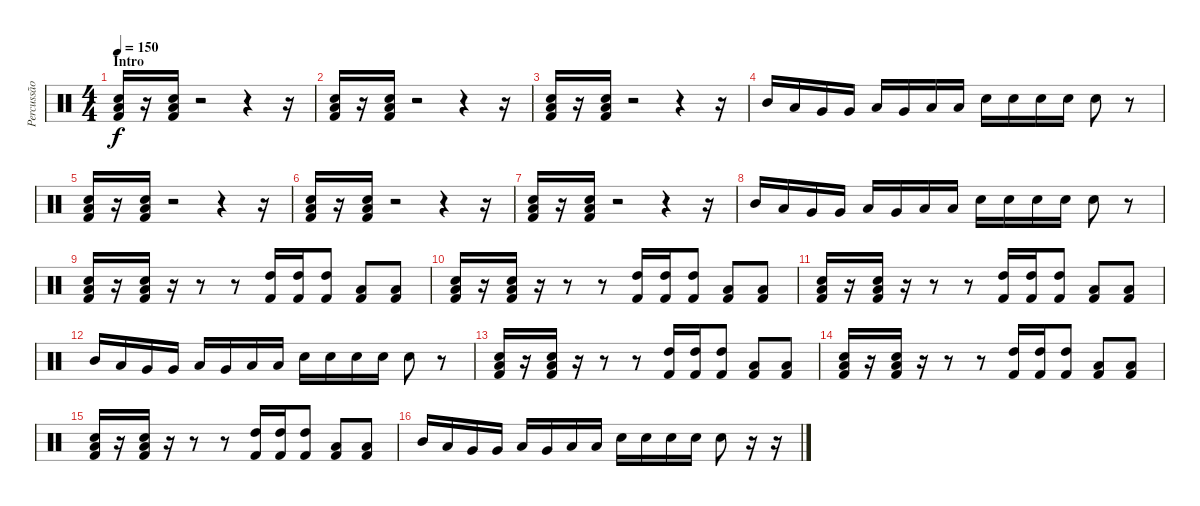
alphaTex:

\track ("Percussão" "Percussão") {instrument percussion}
\staff {score}
\articulation defaults
\ts (4 4)
\section ("" "Intro")
\tempo 150
\clef neutral
\ks c
("Low Tom (hit)" "Electric Snare (hit)" "Kick (hit) 2").16{dy f} r.16 ("Low Tom (hit)" "Electric Snare (hit)" "Kick (hit) 2").16 r.2 r.4 r.16 |
("Low Tom (hit)" "Electric Snare (hit)" "Kick (hit) 2").16 r.16 ("Low Tom (hit)" "Electric Snare (hit)" "Kick (hit) 2").16 r.2 r.4 r.16 |
("Low Tom (hit)" "Electric Snare (hit)" "Kick (hit) 2").16 r.16 ("Low Tom (hit)" "Electric Snare (hit)" "Kick (hit) 2").16 r.2 r.4 r.16 |
"Mid Tom (hit)".16 "Low Tom (hit)".16 "Very Low Tom (hit)".16 "Very Low Tom (hit)".16 "Low Tom (hit)".16 "Very Low Tom (hit)".16 "Low Floor Tom (hit)".16 "Low Floor Tom (hit)".16 "Electric Snare (hit)".16 "Electric Snare (hit)".16 "Electric Snare (hit)".16 "Electric Snare (hit)".16 "Electric Snare (hit)".8 r.8 |
("Low Tom (hit)" "Electric Snare (hit)" "Kick (hit) 2").16 r.16 ("Low Tom (hit)" "Electric Snare (hit)" "Kick (hit) 2").16 r.2 r.4 r.16 |
("Low Tom (hit)" "Electric Snare (hit)" "Kick (hit) 2").16 r.16 ("Low Tom (hit)" "Electric Snare (hit)" "Kick (hit) 2").16 r.2 r.4 r.16 |
("Low Tom (hit)" "Electric Snare (hit)" "Kick (hit) 2").16 r.16 ("Low Tom (hit)" "Electric Snare (hit)" "Kick (hit) 2").16 r.2 r.4 r.16 |
"Mid Tom (hit)".16 "Low Tom (hit)".16 "Very Low Tom (hit)".16 "Very Low Tom (hit)".16 "Low Tom (hit)".16 "Very Low Tom (hit)".16 "Low Floor Tom (hit)".16 "Low Floor Tom (hit)".16 "Electric Snare (hit)".16 "Electric Snare (hit)".16 "Electric Snare (hit)".16 "Electric Snare (hit)".16 "Electric Snare (hit)".8 r.8 |
("Low Tom (hit)" "Electric Snare (hit)" "Kick (hit) 2").16 r.16 ("Low Tom (hit)" "Electric Snare (hit)" "Kick (hit) 2").16 r.16 r.8 r.8 ("High Tom (hit)" "Kick (hit) 2").16 ("High Tom (hit)" "Kick (hit) 2").16 ("High Tom (hit)" "Kick (hit) 2").8 ("Low Tom (hit)" "Kick (hit) 2").8 ("Low Tom (hit)" "Kick (hit) 2").8 |
("Low Tom (hit)" "Electric Snare (hit)" "Kick (hit) 2").16 r.16 ("Low Tom (hit)" "Electric Snare (hit)" "Kick (hit) 2").16 r.16 r.8 r.8 ("High Tom (hit)" "Kick (hit) 2").16 ("High Tom (hit)" "Kick (hit) 2").16 ("High Tom (hit)" "Kick (hit) 2").8 ("Low Tom (hit)" "Kick (hit) 2").8 ("Low Tom (hit)" "Kick (hit) 2").8 |
("Low Tom (hit)" "Electric Snare (hit)" "Kick (hit) 2").16 r.16 ("Low Tom (hit)" "Electric Snare (hit)" "Kick (hit) 2").16 r.16 r.8 r.8 ("High Tom (hit)" "Kick (hit) 2").16 ("High Tom (hit)" "Kick (hit) 2").16 ("High Tom (hit)" "Kick (hit) 2").8 ("Low Tom (hit)" "Kick (hit) 2").8 ("Low Tom (hit)" "Kick (hit) 2").8 |
"Mid Tom (hit)".16 "Low Tom (hit)".16 "Very Low Tom (hit)".16 "Very Low Tom (hit)".16 "Low Tom (hit)".16 "Very Low Tom (hit)".16 "Low Floor Tom (hit)".16 "Low Floor Tom (hit)".16 "Electric Snare (hit)".16 "Electric Snare (hit)".16 "Electric Snare (hit)".16 "Electric Snare (hit)".16 "Electric Snare (hit)".8 r.8 |
("Low Tom (hit)" "Electric Snare (hit)" "Kick (hit) 2").16 r.16 ("Low Tom (hit)" "Electric Snare (hit)" "Kick (hit) 2").16 r.16 r.8 r.8 ("High Tom (hit)" "Kick (hit) 2").16 ("High Tom (hit)" "Kick (hit) 2").16 ("High Tom (hit)" "Kick (hit) 2").8 ("Low Tom (hit)" "Kick (hit) 2").8 ("Low Tom (hit)" "Kick (hit) 2").8 |
("Low Tom (hit)" "Electric Snare (hit)" "Kick (hit) 2").16 r.16 ("Low Tom (hit)" "Electric Snare (hit)" "Kick (hit) 2").16 r.16 r.8 r.8 ("High Tom (hit)" "Kick (hit) 2").16 ("High Tom (hit)" "Kick (hit) 2").16 ("High Tom (hit)" "Kick (hit) 2").8 ("Low Tom (hit)" "Kick (hit) 2").8 ("Low Tom (hit)" "Kick (hit) 2").8 |
("Low Tom (hit)" "Electric Snare (hit)" "Kick (hit) 2").16 r.16 ("Low Tom (hit)" "Electric Snare (hit)" "Kick (hit) 2").16 r.16 r.8 r.8 ("High Tom (hit)" "Kick (hit) 2").16 ("High Tom (hit)" "Kick (hit) 2").16 ("High Tom (hit)" "Kick (hit) 2").8 ("Low Tom (hit)" "Kick (hit) 2").8 ("Low Tom (hit)" "Kick (hit) 2").8 |
"Mid Tom (hit)".16 "Low Tom (hit)".16 "Very Low Tom (hit)".16 "Very Low Tom (hit)".16 "Low Tom (hit)".16 "Very Low Tom (hit)".16 "Low Floor Tom (hit)".16 "Low Floor Tom (hit)".16 "Electric Snare (hit)".16 "Electric Snare (hit)".16 "Electric Snare (hit)".16 "Electric Snare (hit)".16 "Electric Snare (hit)".8 r.16 r.16
